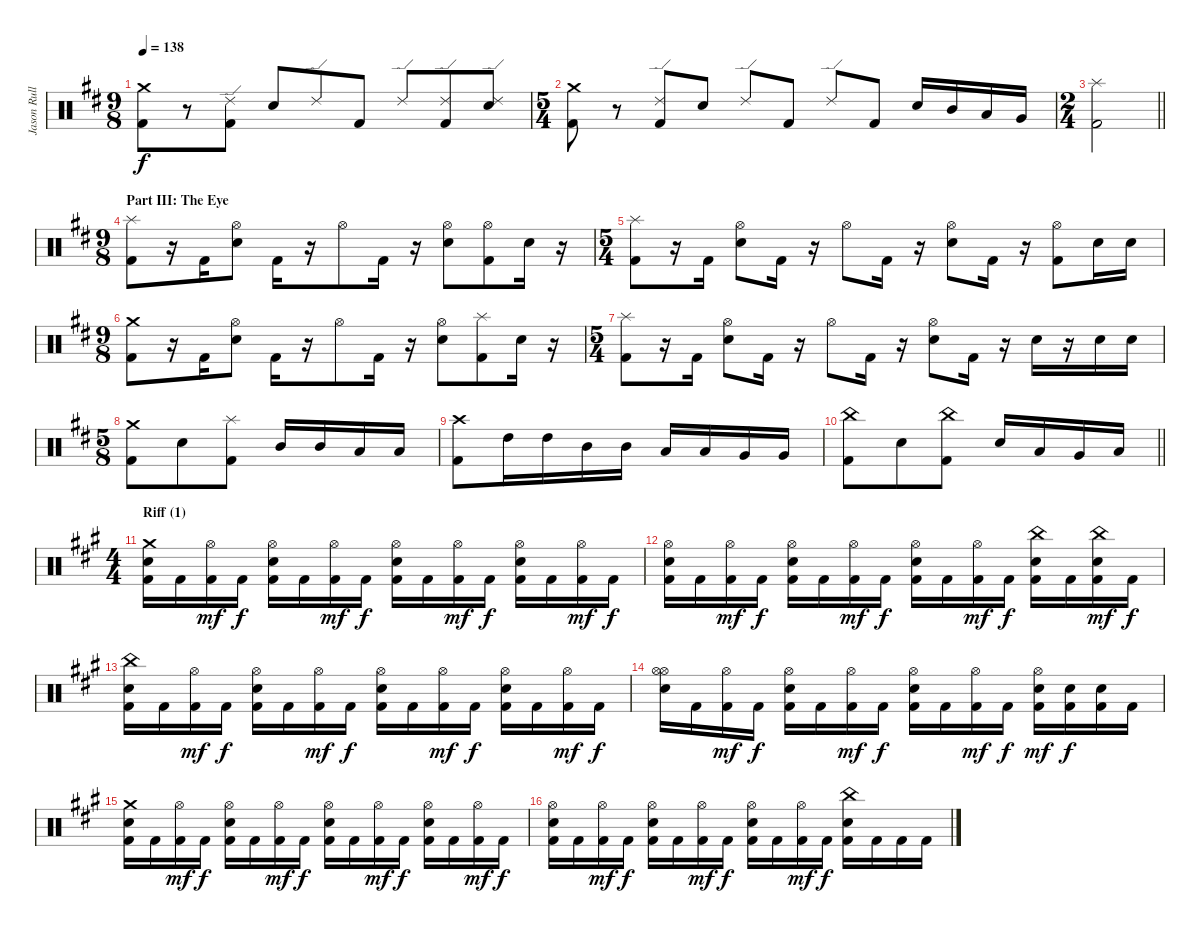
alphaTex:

\track ("Jason Rullo (drums)" "Jason Rull") {instrument percussion}
\staff {score}
\articulation defaults
\ts (9 8)
\tempo 138
\clef neutral
\ks bminor
("Kick (hit) 2" "Crash medium (hit)").8{dy f} r.8 ("Kick (hit) 2" "Ride (edge) 2").8 "Electric Snare (hit)".8 "Ride (edge) 2".8 "Kick (hit) 2".8 "Ride (edge) 2".8 ("Kick (hit) 2" "Ride (edge) 2").8 ("Electric Snare (hit)" "Ride (edge) 2").8 |
\ts (5 4)
("Kick (hit) 2" "Crash medium (hit)").8 r.8 ("Kick (hit) 2" "Ride (edge) 2").8 "Electric Snare (hit)".8 "Ride (edge) 2".8 "Kick (hit) 2".8 "Ride (edge) 2".8 "Kick (hit) 2".8 "Electric Snare (hit)".16 "Mid Tom (hit)".16 "Low Tom (hit)".16 "Very Low Tom (hit)".16 |
\ts (2 4)
\barLineRight lightlight
("Splash (hit)" "Kick (hit) 2").2 |
\ts (9 8)
\section ("" "Part III: The Eye")
("Splash (hit)" "Kick (hit) 2").8 r.16 "Kick (hit) 2".16 ("Hi-Hat (open)" "Electric Snare (hit)").8 "Kick (hit) 2".16 r.16 "Hi-Hat (open)".8 "Kick (hit) 2".16 r.16 ("Hi-Hat (open)" "Electric Snare (hit)").8 ("Hi-Hat (open)" "Kick (hit) 2").8 "Electric Snare (hit)".16 r.16 |
\ts (5 4)
("Splash (hit)" "Kick (hit) 2").8 r.16 "Kick (hit) 2".16 ("Hi-Hat (open)" "Electric Snare (hit)").8 "Kick (hit) 2".16 r.16 "Hi-Hat (open)".8 "Kick (hit) 2".16 r.16 ("Hi-Hat (open)" "Electric Snare (hit)").8 "Kick (hit) 2".16 r.16 ("Hi-Hat (open)" "Kick (hit) 2").8 "Electric Snare (hit)".16 "Electric Snare (hit)".16 |
\ts (9 8)
("Crash medium (hit)" "Kick (hit) 2").8 r.16 "Kick (hit) 2".16 ("Hi-Hat (open)" "Electric Snare (hit)").8 "Kick (hit) 2".16 r.16 "Hi-Hat (open)".8 "Kick (hit) 2".16 r.16 ("Hi-Hat (open)" "Electric Snare (hit)").8 ("Splash (hit)" "Kick (hit) 2").8 "Electric Snare (hit)".16 r.16 |
\ts (5 4)
("Splash (hit)" "Kick (hit) 2").8 r.16 "Kick (hit) 2".16 ("Hi-Hat (open)" "Electric Snare (hit)").8 "Kick (hit) 2".16 r.16 "Hi-Hat (open)".8 "Kick (hit) 2".16 r.16 ("Hi-Hat (open)" "Electric Snare (hit)").8 "Kick (hit) 2".16 r.16 "Electric Snare (hit)".16 r.16 "Electric Snare (hit)".16 "Electric Snare (hit)".16 |
\ts (5 8)
("Crash medium (hit)" "Kick (hit) 2").8 "Electric Snare (hit)".8 ("Splash (hit)" "Kick (hit) 2").8 "Mid Tom (hit)".16 "Mid Tom (hit)".16 "Low Tom (hit)".16 "Low Tom (hit)".16 |
("Crash high (hit)" "Kick (hit) 2").8 "High Tom (hit)".16 "High Tom (hit)".16 "Mid Tom (hit)".16 "Mid Tom (hit)".16 "Low Tom (hit)".16 "Low Tom (hit)".16 "Very Low Tom (hit)".16 "Very Low Tom (hit)".16 |
\barLineRight lightlight
("China (hit)" "Kick (hit) 2").8 "Electric Snare (hit)".8 ("China (hit)" "Kick (hit) 2").8 "Electric Snare (hit)".16 "Low Tom (hit)".16 "Very Low Tom (hit)".16 "Low Floor Tom (hit)".16 |
\ts (4 4)
\section ("" "Riff (1)")
\ks f#minor
("Crash medium (hit)" "Electric Snare (hit)" "Kick (hit) 2").16 "Kick (hit) 2".16 ("Hi-Hat (open)" "Kick (hit) 2").16{dy mf} "Kick (hit) 2".16{dy f} ("Hi-Hat (open)" "Electric Snare (hit)" "Kick (hit) 2").16 "Kick (hit) 2".16 ("Hi-Hat (open)" "Kick (hit) 2").16{dy mf} "Kick (hit) 2".16{dy f} ("Hi-Hat (open)" "Electric Snare (hit)" "Kick (hit) 2").16 "Kick (hit) 2".16 ("Hi-Hat (open)" "Kick (hit) 2").16{dy mf} "Kick (hit) 2".16{dy f} ("Hi-Hat (open)" "Electric Snare (hit)" "Kick (hit) 2").16 "Kick (hit) 2".16 ("Hi-Hat (open)" "Kick (hit) 2").16{dy mf} "Kick (hit) 2".16{dy f} |
("Hi-Hat (open)" "Electric Snare (hit)" "Kick (hit) 2").16 "Kick (hit) 2".16 ("Hi-Hat (open)" "Kick (hit) 2").16{dy mf} "Kick (hit) 2".16{dy f} ("Hi-Hat (open)" "Electric Snare (hit)" "Kick (hit) 2").16 "Kick (hit) 2".16 ("Hi-Hat (open)" "Kick (hit) 2").16{dy mf} "Kick (hit) 2".16{dy f} ("Hi-Hat (open)" "Electric Snare (hit)" "Kick (hit) 2").16 "Kick (hit) 2".16 ("Hi-Hat (open)" "Kick (hit) 2").16{dy mf} "Kick (hit) 2".16{dy f} ("China (hit)" "Electric Snare (hit)" "Kick (hit) 2").16 "Kick (hit) 2".16 ("Electric Snare (hit)" "China (hit)" "Kick (hit) 2").16{dy mf} "Kick (hit) 2".16{dy f} |
("China (hit)" "Electric Snare (hit)" "Kick (hit) 2").16 "Kick (hit) 2".16 ("Hi-Hat (open)" "Kick (hit) 2").16{dy mf} "Kick (hit) 2".16{dy f} ("Hi-Hat (open)" "Electric Snare (hit)" "Kick (hit) 2").16 "Kick (hit) 2".16 ("Hi-Hat (open)" "Kick (hit) 2").16{dy mf} "Kick (hit) 2".16{dy f} ("Hi-Hat (open)" "Electric Snare (hit)" "Kick (hit) 2").16 "Kick (hit) 2".16 ("Hi-Hat (open)" "Kick (hit) 2").16{dy mf} "Kick (hit) 2".16{dy f} ("Hi-Hat (open)" "Electric Snare (hit)" "Kick (hit) 2").16 "Kick (hit) 2".16 ("Hi-Hat (open)" "Kick (hit) 2").16{dy mf} "Kick (hit) 2".16{dy f} |
("Hi-Hat (open)" "Electric Snare (hit)" "Hi-Hat (open)").16 "Kick (hit) 2".16 ("Hi-Hat (open)" "Kick (hit) 2").16{dy mf} "Kick (hit) 2".16{dy f} ("Hi-Hat (open)" "Electric Snare (hit)" "Kick (hit) 2").16 "Kick (hit) 2".16 ("Hi-Hat (open)" "Kick (hit) 2").16{dy mf} "Kick (hit) 2".16{dy f} ("Hi-Hat (open)" "Electric Snare (hit)" "Kick (hit) 2").16 "Kick (hit) 2".16 ("Hi-Hat (open)" "Kick (hit) 2").16{dy mf} "Kick (hit) 2".16{dy f} ("Hi-Hat (open)" "Electric Snare (hit)" "Kick (hit) 2").16{dy mf} ("Electric Snare (hit)" "Kick (hit) 2").16{dy f} ("Electric Snare (hit)" "Kick (hit) 2").16 "Kick (hit) 2".16 |
("Crash medium (hit)" "Electric Snare (hit)" "Kick (hit) 2").16 "Kick (hit) 2".16 ("Hi-Hat (open)" "Kick (hit) 2").16{dy mf} "Kick (hit) 2".16{dy f} ("Hi-Hat (open)" "Electric Snare (hit)" "Kick (hit) 2").16 "Kick (hit) 2".16 ("Hi-Hat (open)" "Kick (hit) 2").16{dy mf} "Kick (hit) 2".16{dy f} ("Hi-Hat (open)" "Electric Snare (hit)" "Kick (hit) 2").16 "Kick (hit) 2".16 ("Hi-Hat (open)" "Kick (hit) 2").16{dy mf} "Kick (hit) 2".16{dy f} ("Hi-Hat (open)" "Electric Snare (hit)" "Kick (hit) 2").16 "Kick (hit) 2".16 ("Hi-Hat (open)" "Kick (hit) 2").16{dy mf} "Kick (hit) 2".16{dy f} |
("Hi-Hat (open)" "Electric Snare (hit)" "Kick (hit) 2").16 "Kick (hit) 2".16 ("Hi-Hat (open)" "Kick (hit) 2").16{dy mf} "Kick (hit) 2".16{dy f} ("Hi-Hat (open)" "Electric Snare (hit)" "Kick (hit) 2").16 "Kick (hit) 2".16 ("Hi-Hat (open)" "Kick (hit) 2").16{dy mf} "Kick (hit) 2".16{dy f} ("Hi-Hat (open)" "Electric Snare (hit)" "Kick (hit) 2").16 "Kick (hit) 2".16 ("Hi-Hat (open)" "Kick (hit) 2").16{dy mf} "Kick (hit) 2".16{dy f} ("China (hit)" "Electric Snare (hit)" "Kick (hit) 2").16 "Kick (hit) 2".16 "Kick (hit) 2".16 "Kick (hit) 2".16
